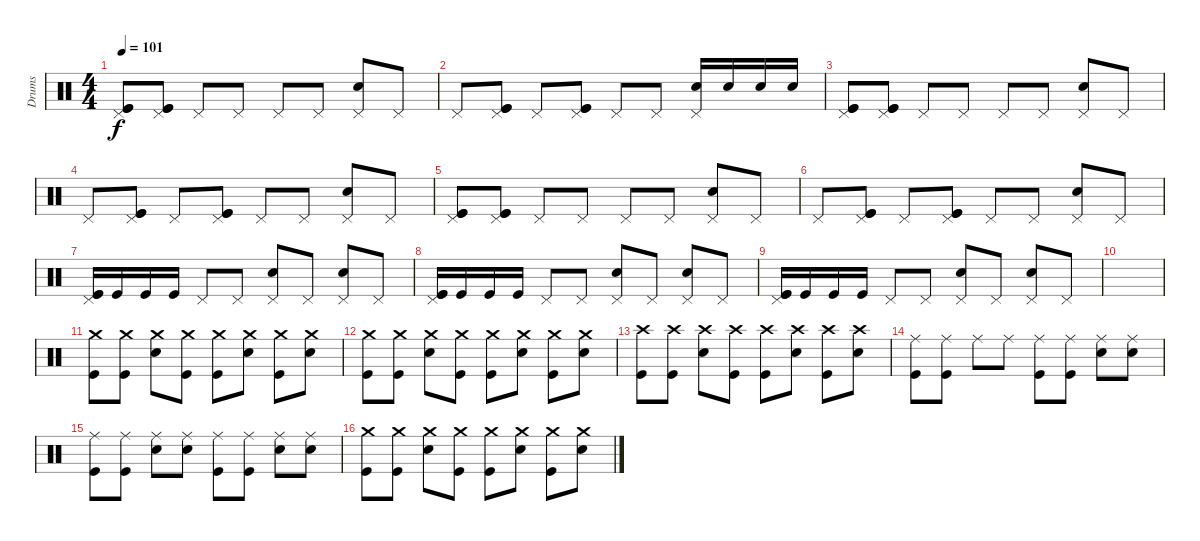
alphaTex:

\track ("Drums" "Drums") {instrument percussion}
\staff {score}
\articulation defaults
\ts (4 4)
\tempo 101
\clef neutral
\ks c
("Pedal Hi-Hat (hit)" "Kick (hit)" "Kick (hit)").8{dy f} ("Pedal Hi-Hat (hit)" "Kick (hit)" "Kick (hit)").8 "Pedal Hi-Hat (hit)".8 "Pedal Hi-Hat (hit)".8 "Pedal Hi-Hat (hit)".8 "Pedal Hi-Hat (hit)".8 ("Pedal Hi-Hat (hit)" "Electric Snare (hit)").8 "Pedal Hi-Hat (hit)".8 |
"Pedal Hi-Hat (hit)".8 ("Pedal Hi-Hat (hit)" "Kick (hit)" "Kick (hit)").8 "Pedal Hi-Hat (hit)".8 ("Pedal Hi-Hat (hit)" "Kick (hit)" "Kick (hit)").8 "Pedal Hi-Hat (hit)".8 "Pedal Hi-Hat (hit)".8 ("Pedal Hi-Hat (hit)" "Electric Snare (hit)").16 "Electric Snare (hit)".16 "Electric Snare (hit)".16 "Electric Snare (hit)".16 |
("Pedal Hi-Hat (hit)" "Kick (hit)" "Kick (hit)").8 ("Pedal Hi-Hat (hit)" "Kick (hit)" "Kick (hit)").8 "Pedal Hi-Hat (hit)".8 "Pedal Hi-Hat (hit)".8 "Pedal Hi-Hat (hit)".8 "Pedal Hi-Hat (hit)".8 ("Pedal Hi-Hat (hit)" "Electric Snare (hit)").8 "Pedal Hi-Hat (hit)".8 |
"Pedal Hi-Hat (hit)".8 ("Pedal Hi-Hat (hit)" "Kick (hit)" "Kick (hit)").8 "Pedal Hi-Hat (hit)".8 ("Pedal Hi-Hat (hit)" "Kick (hit)" "Kick (hit)").8 "Pedal Hi-Hat (hit)".8 "Pedal Hi-Hat (hit)".8 ("Pedal Hi-Hat (hit)" "Electric Snare (hit)").8 "Pedal Hi-Hat (hit)".8 |
("Pedal Hi-Hat (hit)" "Kick (hit)" "Kick (hit)").8 ("Pedal Hi-Hat (hit)" "Kick (hit)" "Kick (hit)").8 "Pedal Hi-Hat (hit)".8 "Pedal Hi-Hat (hit)".8 "Pedal Hi-Hat (hit)".8 "Pedal Hi-Hat (hit)".8 ("Pedal Hi-Hat (hit)" "Electric Snare (hit)").8 "Pedal Hi-Hat (hit)".8 |
"Pedal Hi-Hat (hit)".8 ("Pedal Hi-Hat (hit)" "Kick (hit)" "Kick (hit)").8 "Pedal Hi-Hat (hit)".8 ("Pedal Hi-Hat (hit)" "Kick (hit)" "Kick (hit)").8 "Pedal Hi-Hat (hit)".8 "Pedal Hi-Hat (hit)".8 ("Pedal Hi-Hat (hit)" "Electric Snare (hit)").8 "Pedal Hi-Hat (hit)".8 |
("Pedal Hi-Hat (hit)" "Kick (hit)" "Kick (hit)").16 "Kick (hit)".16 "Kick (hit)".16 "Kick (hit)".16 "Pedal Hi-Hat (hit)".8 "Pedal Hi-Hat (hit)".8 ("Pedal Hi-Hat (hit)" "Electric Snare (hit)").8 "Pedal Hi-Hat (hit)".8 ("Pedal Hi-Hat (hit)" "Electric Snare (hit)").8 "Pedal Hi-Hat (hit)".8 |
("Pedal Hi-Hat (hit)" "Kick (hit)" "Kick (hit)").16 "Kick (hit)".16 "Kick (hit)".16 "Kick (hit)".16 "Pedal Hi-Hat (hit)".8 "Pedal Hi-Hat (hit)".8 ("Pedal Hi-Hat (hit)" "Electric Snare (hit)").8 "Pedal Hi-Hat (hit)".8 ("Pedal Hi-Hat (hit)" "Electric Snare (hit)").8 "Pedal Hi-Hat (hit)".8 |
("Pedal Hi-Hat (hit)" "Kick (hit)" "Kick (hit)").16 "Kick (hit)".16 "Kick (hit)".16 "Kick (hit)".16 "Pedal Hi-Hat (hit)".8 "Pedal Hi-Hat (hit)".8 ("Pedal Hi-Hat (hit)" "Electric Snare (hit)").8 "Pedal Hi-Hat (hit)".8 ("Pedal Hi-Hat (hit)" "Electric Snare (hit)").8 "Pedal Hi-Hat (hit)".8 |
|
("Crash medium (hit)" "Kick (hit)").8 ("Crash medium (hit)" "Kick (hit)").8 ("Crash medium (hit)" "Electric Snare (hit)").8 ("Crash medium (hit)" "Kick (hit)").8 ("Crash medium (hit)" "Kick (hit)").8 ("Crash medium (hit)" "Electric Snare (hit)").8 ("Crash medium (hit)" "Kick (hit)").8 ("Crash medium (hit)" "Electric Snare (hit)").8 |
("Crash medium (hit)" "Kick (hit)").8 ("Crash medium (hit)" "Kick (hit)").8 ("Crash medium (hit)" "Electric Snare (hit)").8 ("Crash medium (hit)" "Kick (hit)").8 ("Crash medium (hit)" "Kick (hit)").8 ("Crash medium (hit)" "Electric Snare (hit)").8 ("Crash medium (hit)" "Kick (hit)").8 ("Crash medium (hit)" "Electric Snare (hit)").8 |
("Crash high (hit)" "Kick (hit)").8 ("Crash high (hit)" "Kick (hit)").8 ("Crash high (hit)" "Electric Snare (hit)").8 ("Crash high (hit)" "Kick (hit)").8 ("Crash high (hit)" "Kick (hit)").8 ("Crash high (hit)" "Electric Snare (hit)").8 ("Crash high (hit)" "Kick (hit)").8 ("Crash high (hit)" "Electric Snare (hit)").8 |
("Ride (middle)" "Kick (hit)").8 ("Ride (middle)" "Kick (hit)").8 "Ride (middle)".8 "Ride (middle)".8 ("Ride (middle)" "Kick (hit)").8 ("Ride (middle)" "Kick (hit)").8 ("Ride (middle)" "Electric Snare (hit)").8 ("Ride (middle)" "Electric Snare (hit)").8 |
("Ride (middle)" "Kick (hit)").8 ("Ride (middle)" "Kick (hit)").8 ("Ride (middle)" "Electric Snare (hit)").8 ("Ride (middle)" "Electric Snare (hit)").8 ("Ride (middle)" "Kick (hit)").8 ("Ride (middle)" "Kick (hit)").8 ("Ride (middle)" "Electric Snare (hit)").8 ("Ride (middle)" "Electric Snare (hit)").8 |
("Crash medium (hit)" "Kick (hit)").8 ("Crash medium (hit)" "Kick (hit)").8 ("Crash medium (hit)" "Electric Snare (hit)").8 ("Crash medium (hit)" "Kick (hit)").8 ("Crash medium (hit)" "Kick (hit)").8 ("Crash medium (hit)" "Electric Snare (hit)").8 ("Crash medium (hit)" "Kick (hit)").8 ("Crash medium (hit)" "Electric Snare (hit)").8
